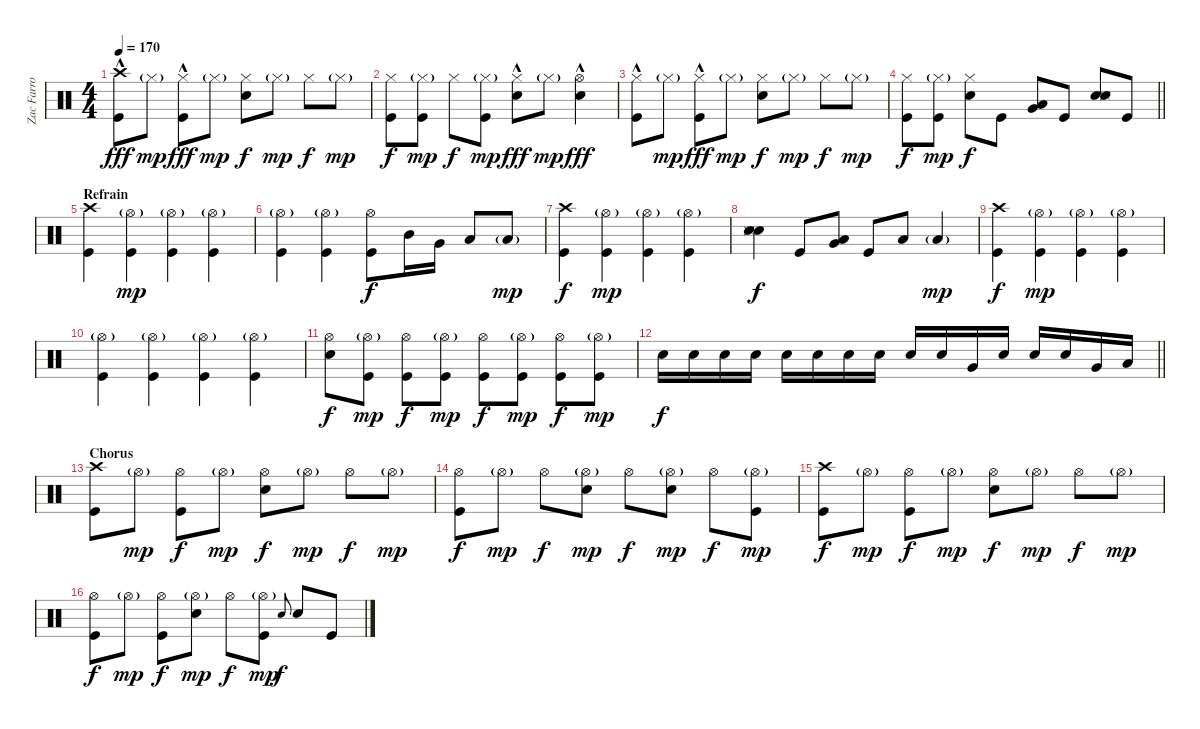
\track ("Zac Farro (Drums)" "Zac Farro ") {instrument percussion}
\staff {score}
\articulation defaults
\ts (4 4)
\tempo 170
\clef neutral
\ks c
("Crash high (hit)" "Kick (hit)"{hac}).8{dy fff} "Hi-Hat (closed)"{g}.8{dy mp} ("Hi-Hat (closed)" "Kick (hit)"{hac}).8{dy fff} "Hi-Hat (closed)"{g}.8{dy mp} ("Hi-Hat (closed)" "Electric Snare (hit)").8{dy f} "Hi-Hat (closed)"{g}.8{dy mp} "Hi-Hat (closed)".8{dy f} "Hi-Hat (closed)"{g}.8{dy mp} |
("Hi-Hat (closed)" "Kick (hit)").8{dy f} ("Hi-Hat (closed)"{g} "Kick (hit)").8{dy mp} "Hi-Hat (closed)".8{dy f} ("Hi-Hat (closed)"{g} "Kick (hit)").8{dy mp} ("Hi-Hat (closed)" "Electric Snare (hit)"{hac}).8{dy fff} "Hi-Hat (closed)"{g}.8{dy mp} ("Hi-Hat (open)"{hac} "Electric Snare (hit)"{hac}).4{dy fff} |
("Hi-Hat (closed)" "Kick (hit)"{hac}).8 "Hi-Hat (closed)"{g}.8{dy mp} ("Hi-Hat (closed)" "Kick (hit)"{hac}).8{dy fff} "Hi-Hat (closed)"{g}.8{dy mp} ("Hi-Hat (closed)" "Electric Snare (hit)").8{dy f} "Hi-Hat (closed)"{g}.8{dy mp} "Hi-Hat (closed)".8{dy f} "Hi-Hat (closed)"{g}.8{dy mp} |
\barLineRight lightlight
("Hi-Hat (closed)" "Kick (hit)").8{dy f} ("Hi-Hat (closed)"{g} "Kick (hit)").8{dy mp} ("Hi-Hat (closed)" "Electric Snare (hit)").8{dy f} "Kick (hit)".8 ("Very Low Tom (hit)" "Low Floor Tom (hit)").8 "Kick (hit)".8 ("Snare (hit) 2" "Snare (side stick) 3" "Electric Snare (hit)").8 "Kick (hit)".8 |
\section ("" "Refrain")
("Crash high (hit)" "Kick (hit)").4 ("Hi-Hat (open)"{g} "Kick (hit)").4{dy mp} ("Hi-Hat (open)"{g} "Kick (hit)").4 ("Hi-Hat (open)"{g} "Kick (hit)").4 |
("Hi-Hat (open)"{g} "Kick (hit)").4 ("Hi-Hat (open)"{g} "Kick (hit)").4 ("Hi-Hat (open)" "Kick (hit)").8{dy f} "Mid Tom (hit)".16 "Very Low Tom (hit)".16 "Low Floor Tom (hit)".8 "Low Floor Tom (hit)"{g}.8{dy mp} |
("Crash high (hit)" "Kick (hit)").4{dy f} ("Hi-Hat (open)"{g} "Kick (hit)").4{dy mp} ("Hi-Hat (open)"{g} "Kick (hit)").4 ("Hi-Hat (open)"{g} "Kick (hit)").4 |
("Snare (hit) 2" "Snare (side stick) 3" "Electric Snare (hit)").4{dy f} "Kick (hit)".8 ("Very Low Tom (hit)" "Low Floor Tom (hit)").8 "Kick (hit)".8 "Low Floor Tom (hit)".8 "Low Floor Tom (hit)"{g}.4{dy mp} |
("Crash high (hit)" "Kick (hit)").4{dy f} ("Hi-Hat (open)"{g} "Kick (hit)").4{dy mp} ("Hi-Hat (open)"{g} "Kick (hit)").4 ("Hi-Hat (open)"{g} "Kick (hit)").4 |
("Hi-Hat (open)"{g} "Kick (hit)").4 ("Hi-Hat (open)"{g} "Kick (hit)").4 ("Hi-Hat (open)"{g} "Kick (hit)").4 ("Hi-Hat (open)"{g} "Kick (hit)").4 |
("Hi-Hat (open)" "Electric Snare (hit)").8{dy f} ("Hi-Hat (open)"{g} "Kick (hit)").8{dy mp} ("Hi-Hat (open)" "Kick (hit)").8{dy f} ("Hi-Hat (open)"{g} "Kick (hit)").8{dy mp} ("Hi-Hat (open)" "Kick (hit)").8{dy f} ("Hi-Hat (open)"{g} "Kick (hit)").8{dy mp} ("Hi-Hat (open)" "Kick (hit)").8{dy f} ("Hi-Hat (open)"{g} "Kick (hit)").8{dy mp} |
\barLineRight lightlight "Electric Snare (hit)".16{dy f} "Electric Snare (hit)".16 "Electric Snare (hit)".16 "Electric Snare (hit)".16 "Electric Snare (hit)".16 "Electric Snare (hit)".16 "Electric Snare (hit)".16 "Electric Snare (hit)".16 "Electric Snare (hit)".16 "Electric Snare (hit)".16 "Very Low Tom (hit)".16 "Electric Snare (hit)".16 "Electric Snare (hit)".16 "Electric Snare (hit)".16 "Very Low Tom (hit)".16 "Low Floor Tom (hit)".16
|
\section ("" "Chorus")
("Crash high (hit)" "Kick (hit)").8 "Hi-Hat (open)"{g}.8{dy mp} ("Hi-Hat (open)" "Kick (hit)").8{dy f} "Hi-Hat (open)"{g}.8{dy mp} ("Hi-Hat (open)" "Electric Snare (hit)").8{dy f} "Hi-Hat (open)"{g}.8{dy mp} "Hi-Hat (open)".8{dy f} "Hi-Hat (open)"{g}.8{dy mp} |
("Hi-Hat (open)" "Kick (hit)").8{dy f} "Hi-Hat (open)"{g}.8{dy mp} "Hi-Hat (open)".8{dy f} ("Hi-Hat (open)"{g} "Electric Snare (hit)").8{dy mp} "Hi-Hat (open)".8{dy f} ("Hi-Hat (open)"{g} "Electric Snare (hit)").8{dy mp} "Hi-Hat (open)".8{dy f} ("Hi-Hat (open)"{g} "Kick (hit)").8{dy mp} |
("Crash high (hit)" "Kick (hit)").8{dy f} "Hi-Hat (open)"{g}.8{dy mp} ("Hi-Hat (open)" "Kick (hit)").8{dy f} "Hi-Hat (open)"{g}.8{dy mp} ("Hi-Hat (open)" "Electric Snare (hit)").8{dy f} "Hi-Hat (open)"{g}.8{dy mp} "Hi-Hat (open)".8{dy f} "Hi-Hat (open)"{g}.8{dy mp} |
("Hi-Hat (open)" "Kick (hit)").8{dy f} "Hi-Hat (open)"{g}.8{dy mp} ("Hi-Hat (open)" "Kick (hit)").8{dy f} ("Hi-Hat (open)"{g} "Electric Snare (hit)").8{dy mp} "Hi-Hat (open)".8{dy f} ("Hi-Hat (open)"{g} "Kick (hit)").8{dy mp} "Electric Snare (hit)".8{gr onbeat dy f} "Electric Snare (hit)".8 "Kick (hit)".8
